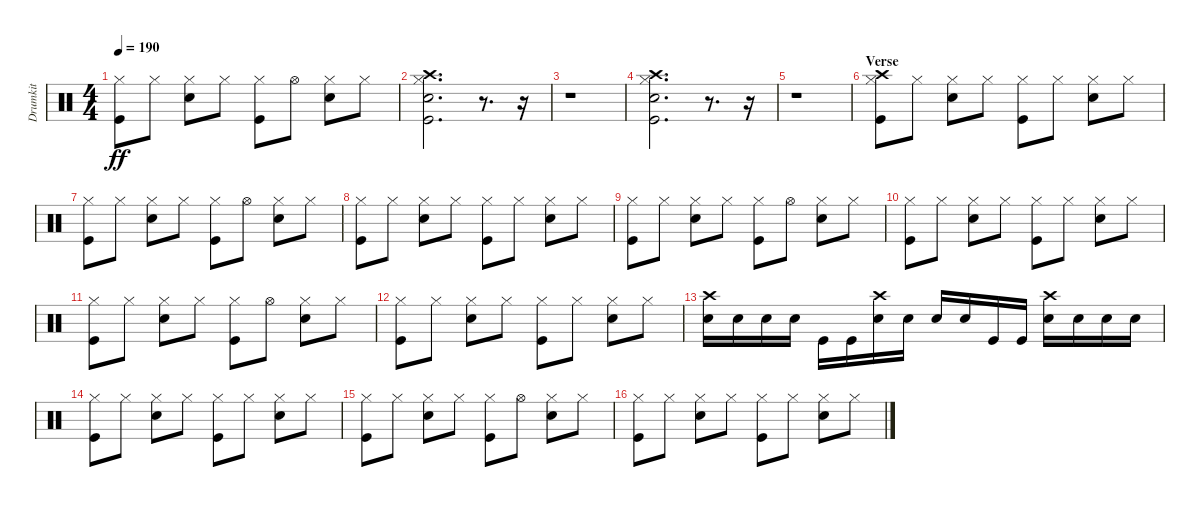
\track ("Drumkit" "Drumkit") {instrument percussion}
\staff {score}
\articulation defaults
\ts (4 4)
\tempo 190
\clef neutral
\ks c
("Kick (hit)" "Hi-Hat (closed)").8{dy ff} "Hi-Hat (closed)".8 ("Snare (hit) 2" "Hi-Hat (closed)").8 "Hi-Hat (closed)".8 ("Kick (hit)" "Hi-Hat (closed)").8 "Hi-Hat (open)".8 ("Snare (hit) 2" "Hi-Hat (closed)").8 "Hi-Hat (closed)".8 |
("Kick (hit)" "Snare (hit) 2" "Hi-Hat (closed)" "Crash high (hit)").2{d} r.8{d} r.16 |
r.1 |
("Kick (hit)" "Snare (hit) 2" "Hi-Hat (closed)" "Crash high (hit)").2{d} r.8{d} r.16 |
r.1 |
\section ("" "Verse")
("Kick (hit)" "Hi-Hat (closed)" "Crash high (hit)").8 "Hi-Hat (closed)".8 ("Snare (hit) 2" "Hi-Hat (closed)").8 "Hi-Hat (closed)".8 ("Kick (hit)" "Hi-Hat (closed)").8 "Hi-Hat (closed)".8 ("Snare (hit) 2" "Hi-Hat (closed)").8 "Hi-Hat (closed)".8 |
("Kick (hit)" "Hi-Hat (closed)").8 "Hi-Hat (closed)".8 ("Snare (hit) 2" "Hi-Hat (closed)").8 "Hi-Hat (closed)".8 ("Kick (hit)" "Hi-Hat (closed)").8 "Hi-Hat (open)".8 ("Snare (hit) 2" "Hi-Hat (closed)").8 "Hi-Hat (closed)".8 |
("Kick (hit)" "Hi-Hat (closed)").8 "Hi-Hat (closed)".8 ("Snare (hit) 2" "Hi-Hat (closed)").8 "Hi-Hat (closed)".8 ("Kick (hit)" "Hi-Hat (closed)").8 "Hi-Hat (closed)".8 ("Snare (hit) 2" "Hi-Hat (closed)").8 "Hi-Hat (closed)".8 |
("Kick (hit)" "Hi-Hat (closed)").8 "Hi-Hat (closed)".8 ("Snare (hit) 2" "Hi-Hat (closed)").8 "Hi-Hat (closed)".8 ("Kick (hit)" "Hi-Hat (closed)").8 "Hi-Hat (open)".8 ("Snare (hit) 2" "Hi-Hat (closed)").8 "Hi-Hat (closed)".8 |
("Kick (hit)" "Hi-Hat (closed)").8 "Hi-Hat (closed)".8 ("Snare (hit) 2" "Hi-Hat (closed)").8 "Hi-Hat (closed)".8 ("Kick (hit)" "Hi-Hat (closed)").8 "Hi-Hat (closed)".8 ("Snare (hit) 2" "Hi-Hat (closed)").8 "Hi-Hat (closed)".8 |
("Kick (hit)" "Hi-Hat (closed)").8 "Hi-Hat (closed)".8 ("Snare (hit) 2" "Hi-Hat (closed)").8 "Hi-Hat (closed)".8 ("Kick (hit)" "Hi-Hat (closed)").8 "Hi-Hat (open)".8 ("Snare (hit) 2" "Hi-Hat (closed)").8 "Hi-Hat (closed)".8 |
("Kick (hit)" "Hi-Hat (closed)").8 "Hi-Hat (closed)".8 ("Snare (hit) 2" "Hi-Hat (closed)").8 "Hi-Hat (closed)".8 ("Kick (hit)" "Hi-Hat (closed)").8 "Hi-Hat (closed)".8 ("Snare (hit) 2" "Hi-Hat (closed)").8 "Hi-Hat (closed)".8 |
("Snare (hit) 2" "Crash high (hit)").16 "Snare (hit) 2".16 "Snare (hit) 2".16 "Snare (hit) 2".16 "Kick (hit)".16 "Kick (hit)".16 ("Snare (hit) 2" "Crash high (hit)").16 "Snare (hit) 2".16 "Snare (hit) 2".16 "Snare (hit) 2".16 "Kick (hit)".16 "Kick (hit)".16 ("Snare (hit) 2" "Crash high (hit)").16 "Snare (hit) 2".16 "Snare (hit) 2".16 "Snare (hit) 2".16 |
("Kick (hit)" "Hi-Hat (closed)").8 "Hi-Hat (closed)".8 ("Snare (hit) 2" "Hi-Hat (closed)").8 "Hi-Hat (closed)".8 ("Kick (hit)" "Hi-Hat (closed)").8 "Hi-Hat (closed)".8 ("Snare (hit) 2" "Hi-Hat (closed)").8 "Hi-Hat (closed)".8 |
("Kick (hit)" "Hi-Hat (closed)").8 "Hi-Hat (closed)".8 ("Snare (hit) 2" "Hi-Hat (closed)").8 "Hi-Hat (closed)".8 ("Kick (hit)" "Hi-Hat (closed)").8 "Hi-Hat (open)".8 ("Snare (hit) 2" "Hi-Hat (closed)").8 "Hi-Hat (closed)".8 |
("Kick (hit)" "Hi-Hat (closed)").8 "Hi-Hat (closed)".8 ("Snare (hit) 2" "Hi-Hat (closed)").8 "Hi-Hat (closed)".8 ("Kick (hit)" "Hi-Hat (closed)").8 "Hi-Hat (closed)".8 ("Snare (hit) 2" "Hi-Hat (closed)").8 "Hi-Hat (closed)".8
